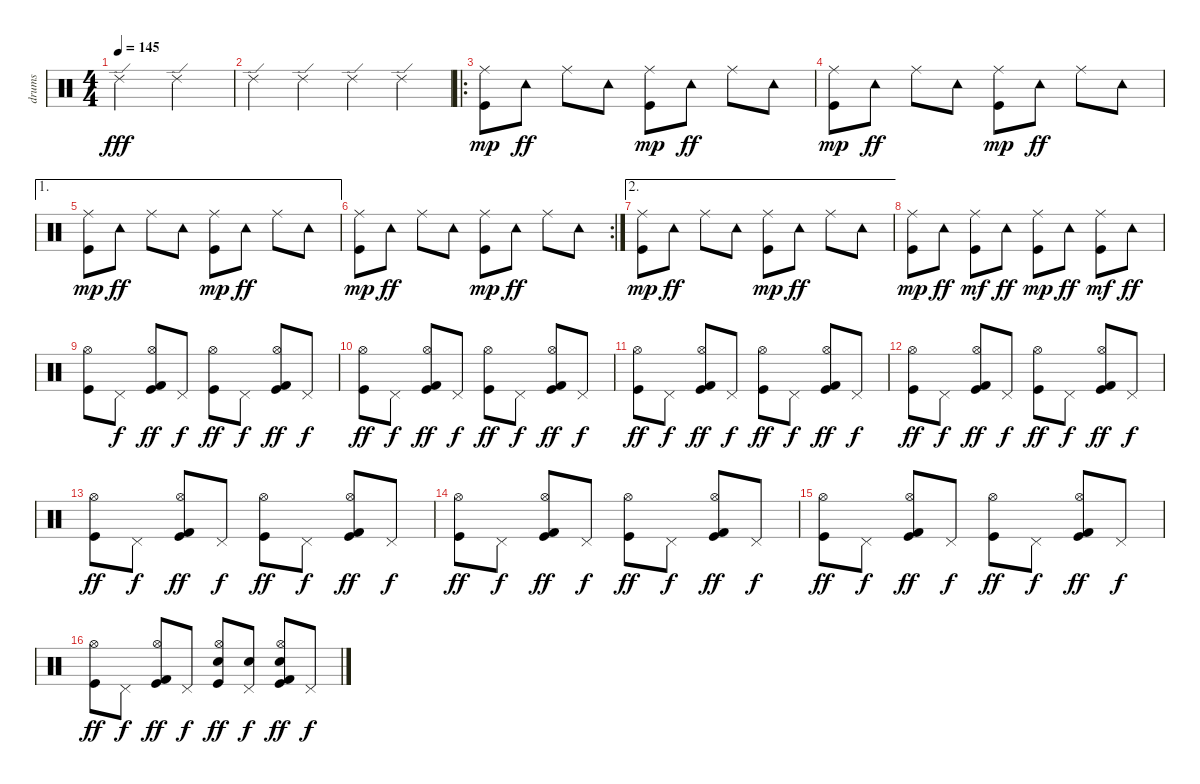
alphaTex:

\track ("drums" "drums") {instrument percussion}
\staff {score}
\articulation defaults
\ts (4 4)
\tempo 145
\clef neutral
\ks c "Ride (edge) 2".2{dy fff} "Ride (edge) 2".2
|
"Ride (edge) 2".4 "Ride (edge) 2".4 "Ride (edge) 2".4 "Ride (edge) 2".4 |
\ro
("Ride (middle)" "Kick (hit)").8{dy mp} "Tambourine (hit)".8{dy ff} "Ride (middle)".8 "Tambourine (hit)".8 ("Ride (middle)" "Kick (hit)").8{dy mp} "Tambourine (hit)".8{dy ff} "Ride (middle)".8 "Tambourine (hit)".8 |
("Ride (middle)" "Kick (hit)").8{dy mp} "Tambourine (hit)".8{dy ff} "Ride (middle)".8 "Tambourine (hit)".8 ("Ride (middle)" "Kick (hit)").8{dy mp} "Tambourine (hit)".8{dy ff} "Ride (middle)".8 "Tambourine (hit)".8 |
\ae 1
("Ride (middle)" "Kick (hit)").8{dy mp} "Tambourine (hit)".8{dy ff} "Ride (middle)".8 "Tambourine (hit)".8 ("Ride (middle)" "Kick (hit)").8{dy mp} "Tambourine (hit)".8{dy ff} "Ride (middle)".8 "Tambourine (hit)".8 |
\rc 2
("Ride (middle)" "Kick (hit)").8{dy mp} "Tambourine (hit)".8{dy ff} "Ride (middle)".8 "Tambourine (hit)".8 ("Ride (middle)" "Kick (hit)").8{dy mp} "Tambourine (hit)".8{dy ff} "Ride (middle)".8 "Tambourine (hit)".8 |
\ae 2
("Ride (middle)" "Kick (hit)").8{dy mp} "Tambourine (hit)".8{dy ff} "Ride (middle)".8 "Tambourine (hit)".8 ("Ride (middle)" "Kick (hit)").8{dy mp} "Tambourine (hit)".8{dy ff} "Ride (middle)".8 "Tambourine (hit)".8 |
("Ride (middle)" "Kick (hit)").8{dy mp} "Tambourine (hit)".8{dy ff} ("Ride (middle)" "Kick (hit)").8{dy mf} "Tambourine (hit)".8{dy ff} ("Ride (middle)" "Kick (hit)").8{dy mp} "Tambourine (hit)".8{dy ff} ("Ride (middle)" "Kick (hit)").8{dy mf} "Tambourine (hit)".8{dy ff} |
("Hi-Hat (open)" "Kick (hit)").8 "Pedal Hi-Hat (hit)".8{dy f} ("Hi-Hat (open)" "Kick (hit) 2" "Kick (hit)").8{dy ff} "Pedal Hi-Hat (hit)".8{dy f} ("Hi-Hat (open)" "Kick (hit)").8{dy ff} "Pedal Hi-Hat (hit)".8{dy f} ("Hi-Hat (open)" "Kick (hit) 2" "Kick (hit)").8{dy ff} "Pedal Hi-Hat (hit)".8{dy f} |
("Hi-Hat (open)" "Kick (hit)").8{dy ff} "Pedal Hi-Hat (hit)".8{dy f} ("Hi-Hat (open)" "Kick (hit) 2" "Kick (hit)").8{dy ff} "Pedal Hi-Hat (hit)".8{dy f} ("Hi-Hat (open)" "Kick (hit)").8{dy ff} "Pedal Hi-Hat (hit)".8{dy f} ("Hi-Hat (open)" "Kick (hit) 2" "Kick (hit)").8{dy ff} "Pedal Hi-Hat (hit)".8{dy f} |
("Hi-Hat (open)" "Kick (hit)").8{dy ff} "Pedal Hi-Hat (hit)".8{dy f} ("Hi-Hat (open)" "Kick (hit) 2" "Kick (hit)").8{dy ff} "Pedal Hi-Hat (hit)".8{dy f} ("Hi-Hat (open)" "Kick (hit)").8{dy ff} "Pedal Hi-Hat (hit)".8{dy f} ("Hi-Hat (open)" "Kick (hit) 2" "Kick (hit)").8{dy ff} "Pedal Hi-Hat (hit)".8{dy f} |
("Hi-Hat (open)" "Kick (hit)").8{dy ff} "Pedal Hi-Hat (hit)".8{dy f} ("Hi-Hat (open)" "Kick (hit) 2" "Kick (hit)").8{dy ff} "Pedal Hi-Hat (hit)".8{dy f} ("Hi-Hat (open)" "Kick (hit)").8{dy ff} "Pedal Hi-Hat (hit)".8{dy f} ("Hi-Hat (open)" "Kick (hit) 2" "Kick (hit)").8{dy ff} "Pedal Hi-Hat (hit)".8{dy f} |
("Hi-Hat (open)" "Kick (hit)").8{dy ff} "Pedal Hi-Hat (hit)".8{dy f} ("Hi-Hat (open)" "Kick (hit) 2" "Kick (hit)").8{dy ff} "Pedal Hi-Hat (hit)".8{dy f} ("Hi-Hat (open)" "Kick (hit)").8{dy ff} "Pedal Hi-Hat (hit)".8{dy f} ("Hi-Hat (open)" "Kick (hit) 2" "Kick (hit)").8{dy ff} "Pedal Hi-Hat (hit)".8{dy f} |
("Hi-Hat (open)" "Kick (hit)").8{dy ff} "Pedal Hi-Hat (hit)".8{dy f} ("Hi-Hat (open)" "Kick (hit) 2" "Kick (hit)").8{dy ff} "Pedal Hi-Hat (hit)".8{dy f} ("Hi-Hat (open)" "Kick (hit)").8{dy ff} "Pedal Hi-Hat (hit)".8{dy f} ("Hi-Hat (open)" "Kick (hit) 2" "Kick (hit)").8{dy ff} "Pedal Hi-Hat (hit)".8{dy f} |
("Hi-Hat (open)" "Kick (hit)").8{dy ff} "Pedal Hi-Hat (hit)".8{dy f} ("Hi-Hat (open)" "Kick (hit) 2" "Kick (hit)").8{dy ff} "Pedal Hi-Hat (hit)".8{dy f} ("Hi-Hat (open)" "Kick (hit)").8{dy ff} "Pedal Hi-Hat (hit)".8{dy f} ("Hi-Hat (open)" "Kick (hit) 2" "Kick (hit)").8{dy ff} "Pedal Hi-Hat (hit)".8{dy f} |
("Hi-Hat (open)" "Kick (hit)").8{dy ff} "Pedal Hi-Hat (hit)".8{dy f} ("Hi-Hat (open)" "Kick (hit) 2" "Kick (hit)").8{dy ff} "Pedal Hi-Hat (hit)".8{dy f} ("Hi-Hat (open)" "Hand Clap (hit)" "Kick (hit)").8{dy ff} ("Pedal Hi-Hat (hit)" "Hand Clap (hit)").8{dy f} ("Hi-Hat (open)" "Hand Clap (hit)" "Kick (hit) 2" "Kick (hit)").8{dy ff} "Pedal Hi-Hat (hit)".8{dy f}
